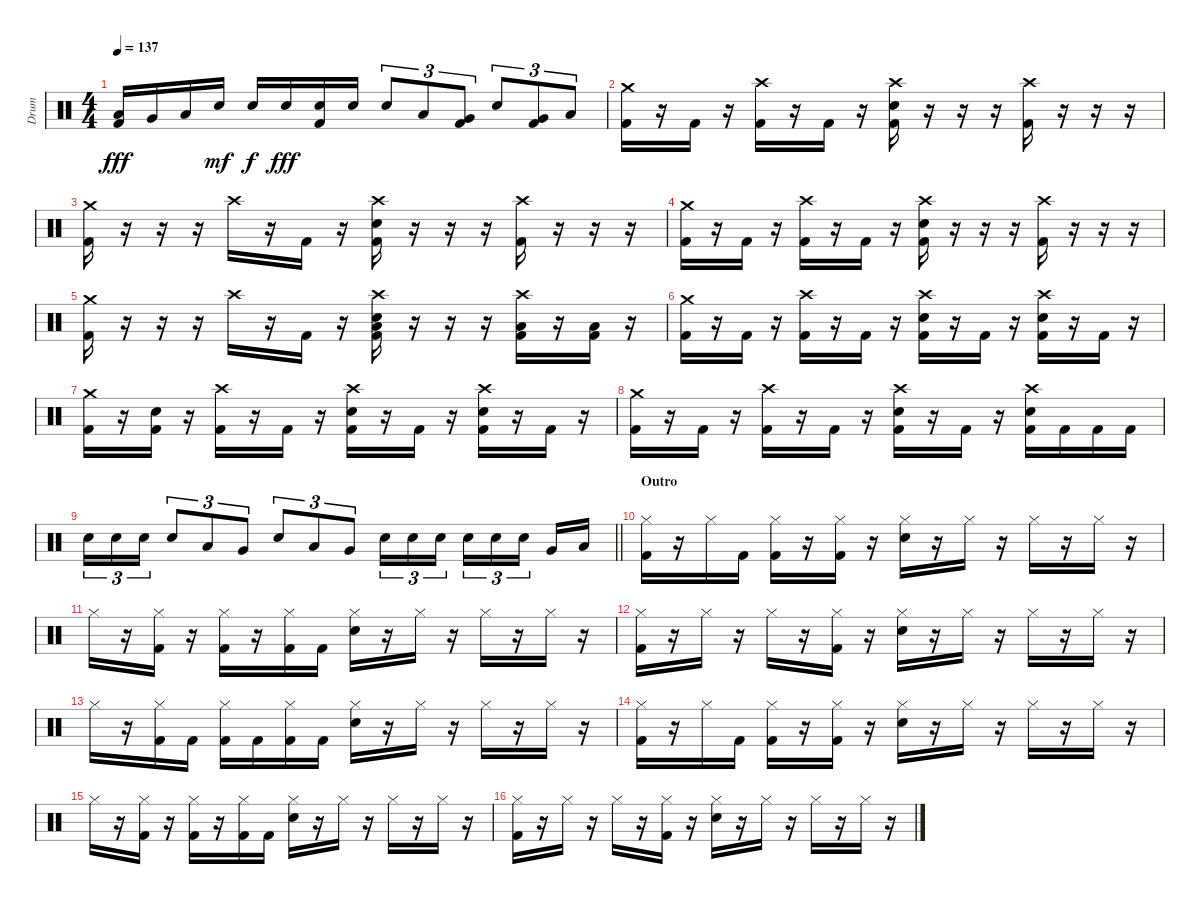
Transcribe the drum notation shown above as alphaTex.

\track ("Drum" "Drum") {instrument percussion}
\staff {score}
\articulation defaults
\ts (4 4)
\tempo 137
\clef neutral
\ks c
("Low Tom (hit)" "Kick (hit) 2").16{dy fff} "Very Low Tom (hit)".16 "Low Floor Tom (hit)".16 "Electric Snare (hit)".16{dy mf} "Electric Snare (hit)".16{dy f} "Electric Snare (hit)".16{dy fff} ("Electric Snare (hit)" "Kick (hit) 2").16 "Electric Snare (hit)".16 "Electric Snare (hit)".8{tu (3 2)} "Low Tom (hit)".8{tu (3 2)} ("Very Low Tom (hit)" "Kick (hit) 2").8{tu (3 2)} "Electric Snare (hit)".8{tu (3 2)} ("Very Low Tom (hit)" "Kick (hit) 2").8{tu (3 2)} "Low Floor Tom (hit)".8{tu (3 2)} |
("Crash medium (hit)" "Kick (hit) 2").16 r.16 "Kick (hit) 2".16 r.16 ("Crash high (hit)" "Kick (hit) 2").16 r.16 "Kick (hit) 2".16 r.16 ("Crash high (hit)" "Electric Snare (hit)" "Kick (hit) 2").16 r.16 r.16 r.16 ("Crash high (hit)" "Kick (hit) 2").16 r.16 r.16 r.16 |
("Crash medium (hit)" "Kick (hit) 2").16 r.16 r.16 r.16 "Crash high (hit)".16 r.16 "Kick (hit) 2".16 r.16 ("Crash high (hit)" "Electric Snare (hit)" "Kick (hit) 2").16 r.16 r.16 r.16 ("Crash high (hit)" "Kick (hit) 2").16 r.16 r.16 r.16 |
("Crash medium (hit)" "Kick (hit) 2").16 r.16 "Kick (hit) 2".16 r.16 ("Crash high (hit)" "Kick (hit) 2").16 r.16 "Kick (hit) 2".16 r.16 ("Crash high (hit)" "Electric Snare (hit)" "Kick (hit) 2").16 r.16 r.16 r.16 ("Crash high (hit)" "Kick (hit) 2").16 r.16 r.16 r.16 |
("Crash medium (hit)" "Kick (hit) 2").16 r.16 r.16 r.16 "Crash high (hit)".16 r.16 "Kick (hit) 2".16 r.16 ("Crash high (hit)" "Low Floor Tom (hit)" "Electric Snare (hit)" "Kick (hit) 2").16 r.16 r.16 r.16 ("Crash high (hit)" "Low Floor Tom (hit)" "Kick (hit) 2").16 r.16 ("Low Floor Tom (hit)" "Kick (hit) 2").16 r.16 |
("Crash medium (hit)" "Kick (hit) 2").16 r.16 "Kick (hit) 2".16 r.16 ("Crash high (hit)" "Kick (hit) 2").16 r.16 "Kick (hit) 2".16 r.16 ("Crash high (hit)" "Electric Snare (hit)" "Kick (hit) 2").16 r.16 "Kick (hit) 2".16 r.16 ("Crash high (hit)" "Electric Snare (hit)" "Kick (hit) 2").16 r.16 "Kick (hit) 2".16 r.16 |
("Crash medium (hit)" "Kick (hit) 2").16 r.16 ("Electric Snare (hit)" "Kick (hit) 2").16 r.16 ("Crash high (hit)" "Kick (hit) 2").16 r.16 "Kick (hit) 2".16 r.16 ("Crash high (hit)" "Electric Snare (hit)" "Kick (hit) 2").16 r.16 "Kick (hit) 2".16 r.16 ("Crash high (hit)" "Electric Snare (hit)" "Kick (hit) 2").16 r.16 "Kick (hit) 2".16 r.16 |
("Crash medium (hit)" "Kick (hit) 2").16 r.16 "Kick (hit) 2".16 r.16 ("Crash high (hit)" "Kick (hit) 2").16 r.16 "Kick (hit) 2".16 r.16 ("Crash high (hit)" "Electric Snare (hit)" "Kick (hit) 2").16 r.16 "Kick (hit) 2".16 r.16 ("Crash high (hit)" "Electric Snare (hit)" "Kick (hit) 2").16 "Kick (hit) 2".16 "Kick (hit) 2".16 "Kick (hit) 2".16 |
\barLineRight lightlight "Electric Snare (hit)".16{tu (3 2)} "Electric Snare (hit)".16{tu (3 2)} "Electric Snare (hit)".16{tu (3 2)} "Electric Snare (hit)".8{tu (3 2)} "Low Tom (hit)".8{tu (3 2)} "Very Low Tom (hit)".8{tu (3 2)} "Electric Snare (hit)".8{tu (3 2)} "Low Tom (hit)".8{tu (3 2)} "Very Low Tom (hit)".8{tu (3 2)} "Electric Snare (hit)".16{tu (3 2)} "Electric Snare (hit)".16{tu (3 2)} "Electric Snare (hit)".16{tu (3 2)} "Electric Snare (hit)".16{tu (3 2)} "Electric Snare (hit)".16{tu (3 2)} "Electric Snare (hit)".16{tu (3 2) beam splitsecondary} "Very Low Tom (hit)".16 "Low Floor Tom (hit)".16
|
\section ("" "Outro")
("Hi-Hat (closed)" "Kick (hit) 2").16 r.16 "Hi-Hat (closed)".16 "Kick (hit) 2".16 ("Hi-Hat (closed)" "Kick (hit) 2").16 r.16 ("Hi-Hat (closed)" "Kick (hit) 2").16 r.16 ("Hi-Hat (closed)" "Hand Clap (hit)").16 r.16 "Hi-Hat (closed)".16 r.16 "Hi-Hat (closed)".16 r.16 "Hi-Hat (closed)".16 r.16 |
"Hi-Hat (closed)".16 r.16 ("Hi-Hat (closed)" "Kick (hit) 2").16 r.16 ("Hi-Hat (closed)" "Kick (hit) 2").16 r.16 ("Hi-Hat (closed)" "Kick (hit) 2").16 "Kick (hit) 2".16 ("Hi-Hat (closed)" "Hand Clap (hit)").16 r.16 "Hi-Hat (closed)".16 r.16 "Hi-Hat (closed)".16 r.16 "Hi-Hat (closed)".16 r.16 |
("Hi-Hat (closed)" "Kick (hit) 2").16 r.16 "Hi-Hat (closed)".16 r.16 "Hi-Hat (closed)".16 r.16 ("Hi-Hat (closed)" "Kick (hit) 2").16 r.16 ("Hi-Hat (closed)" "Hand Clap (hit)").16 r.16 "Hi-Hat (closed)".16 r.16 "Hi-Hat (closed)".16 r.16 "Hi-Hat (closed)".16 r.16 |
"Hi-Hat (closed)".16 r.16 ("Hi-Hat (closed)" "Kick (hit) 2").16 "Kick (hit) 2".16 ("Hi-Hat (closed)" "Kick (hit) 2").16 "Kick (hit) 2".16 ("Hi-Hat (closed)" "Kick (hit) 2").16 "Kick (hit) 2".16 ("Hi-Hat (closed)" "Hand Clap (hit)").16 r.16 "Hi-Hat (closed)".16 r.16 "Hi-Hat (closed)".16 r.16 "Hi-Hat (closed)".16 r.16 |
("Hi-Hat (closed)" "Kick (hit) 2").16 r.16 "Hi-Hat (closed)".16 "Kick (hit) 2".16 ("Hi-Hat (closed)" "Kick (hit) 2").16 r.16 ("Hi-Hat (closed)" "Kick (hit) 2").16 r.16 ("Hi-Hat (closed)" "Hand Clap (hit)").16 r.16 "Hi-Hat (closed)".16 r.16 "Hi-Hat (closed)".16 r.16 "Hi-Hat (closed)".16 r.16 |
"Hi-Hat (closed)".16 r.16 ("Hi-Hat (closed)" "Kick (hit) 2").16 r.16 ("Hi-Hat (closed)" "Kick (hit) 2").16 r.16 ("Hi-Hat (closed)" "Kick (hit) 2").16 "Kick (hit) 2".16 ("Hi-Hat (closed)" "Hand Clap (hit)").16 r.16 "Hi-Hat (closed)".16 r.16 "Hi-Hat (closed)".16 r.16 "Hi-Hat (closed)".16 r.16 |
("Hi-Hat (closed)" "Kick (hit) 2").16 r.16 "Hi-Hat (closed)".16 r.16 "Hi-Hat (closed)".16 r.16 ("Hi-Hat (closed)" "Kick (hit) 2").16 r.16 ("Hi-Hat (closed)" "Hand Clap (hit)").16 r.16 "Hi-Hat (closed)".16 r.16 "Hi-Hat (closed)".16 r.16 "Hi-Hat (closed)".16 r.16
